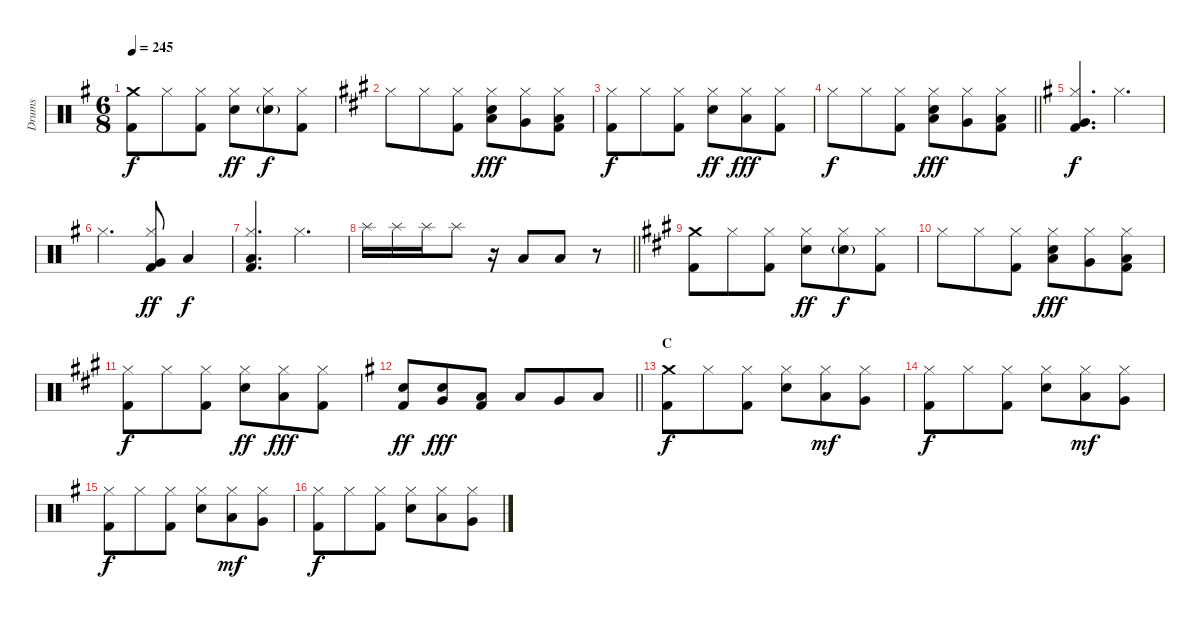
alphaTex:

\track ("Drums" "Drums") {instrument percussion}
\staff {score}
\articulation defaults
\ts (6 8)
\section ("" "")
\tempo 245
\clef neutral
\ks eminor
("Crash medium (hit)" "Kick (hit) 2").8{dy f} "Hi-Hat (closed)".8 ("Hi-Hat (closed)" "Kick (hit) 2").8 ("Hi-Hat (closed)" "Electric Snare (hit)").8{dy ff} ("Hi-Hat (closed)" "Electric Snare (hit)"{g}).8{dy f} ("Hi-Hat (closed)" "Kick (hit) 2").8 |
\ks a "Hi-Hat (closed)".8 "Hi-Hat (closed)".8
("Hi-Hat (closed)" "Kick (hit) 2").8 ("Hi-Hat (closed)" "Low Tom (hit)" "Electric Snare (hit)").8{dy fff} ("Hi-Hat (closed)" "Very Low Tom (hit)").8 ("Hi-Hat (closed)" "Low Floor Tom (hit)" "Kick (hit) 2").8 |
("Hi-Hat (closed)" "Kick (hit) 2").8{dy f} "Hi-Hat (closed)".8 ("Hi-Hat (closed)" "Kick (hit) 2").8 ("Hi-Hat (closed)" "Electric Snare (hit)").8{dy ff} ("Hi-Hat (closed)" "Low Tom (hit)").8{dy fff} ("Hi-Hat (closed)" "Kick (hit) 2").8 |
\barLineRight lightlight "Hi-Hat (closed)".8{dy f} "Hi-Hat (closed)".8
("Hi-Hat (closed)" "Kick (hit) 2").8 ("Hi-Hat (closed)" "Low Tom (hit)" "Electric Snare (hit)").8{dy fff} ("Hi-Hat (closed)" "Very Low Tom (hit)").8 ("Hi-Hat (closed)" "Low Floor Tom (hit)" "Kick (hit) 2").8 |
\section ("" "")
\ks eminor
("Hi-Hat (closed)" "Very Low Tom (hit)" "Kick (hit) 2").4{d dy f} "Hi-Hat (closed)".4{d} |
"Hi-Hat (closed)".4{d} ("Hi-Hat (closed)" "Very Low Tom (hit)" "Kick (hit) 2").8{dy ff} "Low Floor Tom (hit)".4{dy f} |
("Hi-Hat (closed)" "Low Tom (hit)" "Kick (hit) 2").4{d} "Hi-Hat (closed)".4{d} |
\barLineRight lightlight "Splash (hit)".16 "Splash (hit)".16 "Splash (hit)".16 "Splash (hit)".8
r.16 "Low Floor Tom (hit)".8 "Low Tom (hit)".8 r.8 |
\ks a
("Crash medium (hit)" "Kick (hit) 2").8 "Hi-Hat (closed)".8 ("Hi-Hat (closed)" "Kick (hit) 2").8 ("Hi-Hat (closed)" "Electric Snare (hit)").8{dy ff} ("Hi-Hat (closed)" "Electric Snare (hit)"{g}).8{dy f} ("Hi-Hat (closed)" "Kick (hit) 2").8 |
"Hi-Hat (closed)".8 "Hi-Hat (closed)".8 ("Hi-Hat (closed)" "Kick (hit) 2").8 ("Hi-Hat (closed)" "Low Tom (hit)" "Electric Snare (hit)").8{dy fff} ("Hi-Hat (closed)" "Very Low Tom (hit)").8 ("Hi-Hat (closed)" "Low Floor Tom (hit)" "Kick (hit) 2").8 |
("Hi-Hat (closed)" "Kick (hit) 2").8{dy f} "Hi-Hat (closed)".8 ("Hi-Hat (closed)" "Kick (hit) 2").8 ("Hi-Hat (closed)" "Electric Snare (hit)").8{dy ff} ("Hi-Hat (closed)" "Low Tom (hit)").8{dy fff} ("Hi-Hat (closed)" "Kick (hit) 2").8 |
\barLineRight lightlight
\ks eminor
("Electric Snare (hit)" "Kick (hit) 2").8{dy ff} ("Very Low Tom (hit)" "Electric Snare (hit)").8{dy fff} ("Low Floor Tom (hit)" "Kick (hit) 2").8 "Low Floor Tom (hit)".8 "Very Low Tom (hit)".8 "Low Tom (hit)".8 |
\section ("" "C")
("Crash medium (hit)" "Kick (hit) 2").8{dy f} "Hi-Hat (closed)".8 ("Hi-Hat (closed)" "Kick (hit) 2").8 ("Hi-Hat (closed)" "Electric Snare (hit)").8 ("Hi-Hat (closed)" "Low Tom (hit)").8{dy mf} ("Hi-Hat (closed)" "Very Low Tom (hit)").8 |
("Hi-Hat (closed)" "Kick (hit) 2").8{dy f} "Hi-Hat (closed)".8 ("Hi-Hat (closed)" "Kick (hit) 2").8 ("Hi-Hat (closed)" "Electric Snare (hit)").8 ("Hi-Hat (closed)" "Low Tom (hit)").8{dy mf} ("Hi-Hat (closed)" "Very Low Tom (hit)").8 |
("Hi-Hat (closed)" "Kick (hit) 2").8{dy f} "Hi-Hat (closed)".8 ("Hi-Hat (closed)" "Kick (hit) 2").8 ("Hi-Hat (closed)" "Electric Snare (hit)").8 ("Hi-Hat (closed)" "Low Tom (hit)").8{dy mf} ("Hi-Hat (closed)" "Very Low Tom (hit)").8 |
("Hi-Hat (closed)" "Kick (hit) 2").8{dy f} "Hi-Hat (closed)".8 ("Hi-Hat (closed)" "Kick (hit) 2").8 ("Hi-Hat (closed)" "Electric Snare (hit)").8 ("Hi-Hat (closed)" "Low Tom (hit)").8 ("Hi-Hat (closed)" "Very Low Tom (hit)").8
